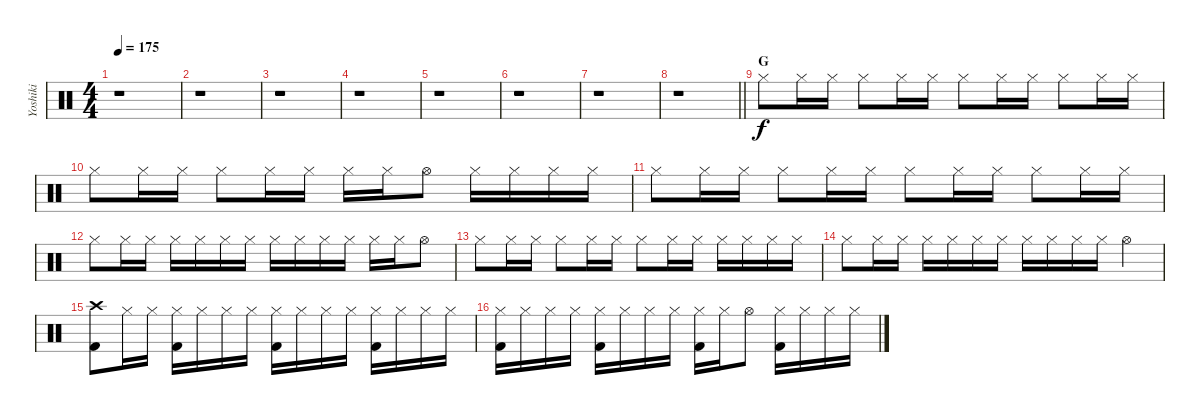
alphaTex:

\track ("Yoshiki" "Yoshiki") {instrument percussion}
\staff {score}
\articulation defaults
\ts (4 4)
\tempo 175
\clef neutral
\ks c
r.1{dy f} |
r.1 |
r.1 |
r.1 |
r.1 |
r.1 |
r.1 |
\barLineRight lightlight
r.1 |
\section ("" "G")
"Hi-Hat (closed)".8 "Hi-Hat (closed)".16 "Hi-Hat (closed)".16 "Hi-Hat (closed)".8 "Hi-Hat (closed)".16 "Hi-Hat (closed)".16 "Hi-Hat (closed)".8 "Hi-Hat (closed)".16 "Hi-Hat (closed)".16 "Hi-Hat (closed)".8 "Hi-Hat (closed)".16 "Hi-Hat (closed)".16 |
"Hi-Hat (closed)".8 "Hi-Hat (closed)".16 "Hi-Hat (closed)".16 "Hi-Hat (closed)".8 "Hi-Hat (closed)".16 "Hi-Hat (closed)".16 "Hi-Hat (closed)".16 "Hi-Hat (closed)".16 "Hi-Hat (open)".8 "Hi-Hat (closed)".16 "Hi-Hat (closed)".16 "Hi-Hat (closed)".16 "Hi-Hat (closed)".16 |
"Hi-Hat (closed)".8 "Hi-Hat (closed)".16 "Hi-Hat (closed)".16 "Hi-Hat (closed)".8 "Hi-Hat (closed)".16 "Hi-Hat (closed)".16 "Hi-Hat (closed)".8 "Hi-Hat (closed)".16 "Hi-Hat (closed)".16 "Hi-Hat (closed)".8 "Hi-Hat (closed)".16 "Hi-Hat (closed)".16 |
"Hi-Hat (closed)".8 "Hi-Hat (closed)".16 "Hi-Hat (closed)".16 "Hi-Hat (closed)".16 "Hi-Hat (closed)".16 "Hi-Hat (closed)".16 "Hi-Hat (closed)".16 "Hi-Hat (closed)".16 "Hi-Hat (closed)".16 "Hi-Hat (closed)".16 "Hi-Hat (closed)".16 "Hi-Hat (closed)".16 "Hi-Hat (closed)".16 "Hi-Hat (open)".8 |
"Hi-Hat (closed)".8 "Hi-Hat (closed)".16 "Hi-Hat (closed)".16 "Hi-Hat (closed)".8 "Hi-Hat (closed)".16 "Hi-Hat (closed)".16 "Hi-Hat (closed)".8 "Hi-Hat (closed)".16 "Hi-Hat (closed)".16 "Hi-Hat (closed)".16 "Hi-Hat (closed)".16 "Hi-Hat (closed)".16 "Hi-Hat (closed)".16 |
"Hi-Hat (closed)".8 "Hi-Hat (closed)".16 "Hi-Hat (closed)".16 "Hi-Hat (closed)".16 "Hi-Hat (closed)".16 "Hi-Hat (closed)".16 "Hi-Hat (closed)".16 "Hi-Hat (closed)".16 "Hi-Hat (closed)".16 "Hi-Hat (closed)".16 "Hi-Hat (closed)".16 "Hi-Hat (open)".4 |
("Crash high (hit)" "Kick (hit) 2").8 "Hi-Hat (closed)".16 "Hi-Hat (closed)".16 ("Hi-Hat (closed)" "Kick (hit) 2").16 "Hi-Hat (closed)".16 "Hi-Hat (closed)".16 "Hi-Hat (closed)".16 ("Hi-Hat (closed)" "Kick (hit) 2").16 "Hi-Hat (closed)".16 "Hi-Hat (closed)".16 "Hi-Hat (closed)".16 ("Hi-Hat (closed)" "Kick (hit) 2").16 "Hi-Hat (closed)".16 "Hi-Hat (closed)".16 "Hi-Hat (closed)".16 |
("Hi-Hat (closed)" "Kick (hit) 2").16 "Hi-Hat (closed)".16 "Hi-Hat (closed)".16 "Hi-Hat (closed)".16 ("Hi-Hat (closed)" "Kick (hit) 2").16 "Hi-Hat (closed)".16 "Hi-Hat (closed)".16 "Hi-Hat (closed)".16 ("Hi-Hat (closed)" "Kick (hit) 2").16 "Hi-Hat (closed)".16 "Hi-Hat (open)".8 ("Hi-Hat (closed)" "Kick (hit) 2").16 "Hi-Hat (closed)".16 "Hi-Hat (closed)".16 "Hi-Hat (closed)".16
